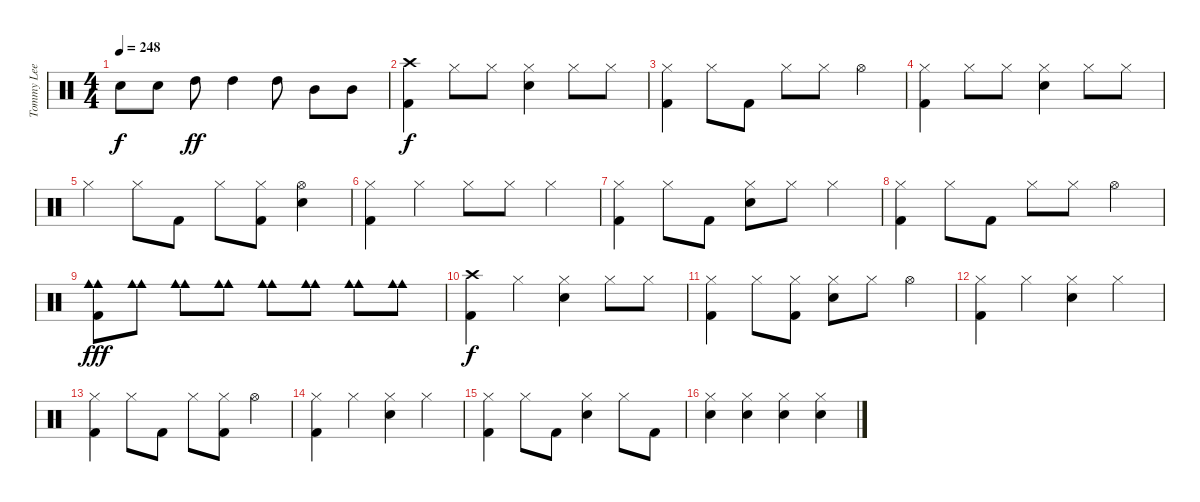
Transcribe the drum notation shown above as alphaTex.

\track ("Tommy Lee" "Tommy Lee") {instrument percussion}
\staff {score}
\articulation defaults
\ts (4 4)
\tempo 248
\clef neutral
\ks c "Electric Snare (hit)".8{dy f} "Electric Snare (hit)".8 "High Tom (hit)".8{dy ff} "High Tom (hit)".4 "High Tom (hit)".8 "Mid Tom (hit)".8 "Mid Tom (hit)".8
|
("Crash high (hit)" "Kick (hit) 2").4{dy f} "Hi-Hat (closed)".8 "Hi-Hat (closed)".8 ("Hi-Hat (closed)" "Electric Snare (hit)").4 "Hi-Hat (closed)".8 "Hi-Hat (closed)".8 |
("Hi-Hat (closed)" "Kick (hit) 2").4 "Hi-Hat (closed)".8 "Kick (hit) 2".8 "Hi-Hat (closed)".8 "Hi-Hat (closed)".8 "Hi-Hat (open)".4 |
("Hi-Hat (closed)" "Kick (hit) 2").4 "Hi-Hat (closed)".8 "Hi-Hat (closed)".8 ("Hi-Hat (closed)" "Electric Snare (hit)").4 "Hi-Hat (closed)".8 "Hi-Hat (closed)".8 |
"Hi-Hat (closed)".4 "Hi-Hat (closed)".8 "Kick (hit) 2".8 "Hi-Hat (closed)".8 ("Hi-Hat (closed)" "Kick (hit) 2").8 ("Hi-Hat (open)" "Electric Snare (hit)").4 |
("Hi-Hat (closed)" "Kick (hit) 2").4 "Hi-Hat (closed)".4 "Hi-Hat (closed)".8 "Hi-Hat (closed)".8 "Hi-Hat (closed)".4 |
("Hi-Hat (closed)" "Kick (hit) 2").4 "Hi-Hat (closed)".8 "Kick (hit) 2".8 ("Hi-Hat (closed)" "Electric Snare (hit)").8 "Hi-Hat (closed)".8 "Hi-Hat (closed)".4 |
("Hi-Hat (closed)" "Kick (hit) 2").4 "Hi-Hat (closed)".8 "Kick (hit) 2".8 "Hi-Hat (closed)".8 "Hi-Hat (closed)".8 "Hi-Hat (open)".4 |
("Cowbell medium (hit)" "Cowbell medium (hit)" "Kick (hit) 2").8{dy fff} ("Cowbell medium (hit)" "Cowbell medium (hit)").8 ("Cowbell medium (hit)" "Cowbell medium (hit)").8 ("Cowbell medium (hit)" "Cowbell medium (hit)").8 ("Cowbell medium (hit)" "Cowbell medium (hit)").8 ("Cowbell medium (hit)" "Cowbell medium (hit)").8 ("Cowbell medium (hit)" "Cowbell medium (hit)").8 ("Cowbell medium (hit)" "Cowbell medium (hit)").8 |
("Crash high (hit)" "Kick (hit) 2").4{dy f} "Hi-Hat (closed)".4 ("Hi-Hat (closed)" "Electric Snare (hit)").4 "Hi-Hat (closed)".8 "Hi-Hat (closed)".8 |
("Hi-Hat (closed)" "Kick (hit) 2").4 "Hi-Hat (closed)".8 ("Hi-Hat (closed)" "Kick (hit) 2").8 ("Hi-Hat (closed)" "Electric Snare (hit)").8 "Hi-Hat (closed)".8 "Hi-Hat (open)".4 |
("Hi-Hat (closed)" "Kick (hit) 2").4 "Hi-Hat (closed)".4 ("Hi-Hat (closed)" "Electric Snare (hit)").4 "Hi-Hat (closed)".4 |
("Hi-Hat (closed)" "Kick (hit) 2").4 "Hi-Hat (closed)".8 "Kick (hit) 2".8 "Hi-Hat (closed)".8 ("Hi-Hat (closed)" "Kick (hit) 2").8 "Hi-Hat (open)".4 |
("Hi-Hat (closed)" "Kick (hit) 2").4 "Hi-Hat (closed)".4 ("Hi-Hat (closed)" "Electric Snare (hit)").4 "Hi-Hat (closed)".4 |
("Hi-Hat (closed)" "Kick (hit) 2").4 "Hi-Hat (closed)".8 "Kick (hit) 2".8 ("Hi-Hat (closed)" "Electric Snare (hit)").4 "Hi-Hat (closed)".8 "Kick (hit) 2".8 |
("Hi-Hat (closed)" "Electric Snare (hit)").4 ("Hi-Hat (closed)" "Electric Snare (hit)").4 ("Hi-Hat (closed)" "Electric Snare (hit)").4 ("Hi-Hat (closed)" "Electric Snare (hit)").4
